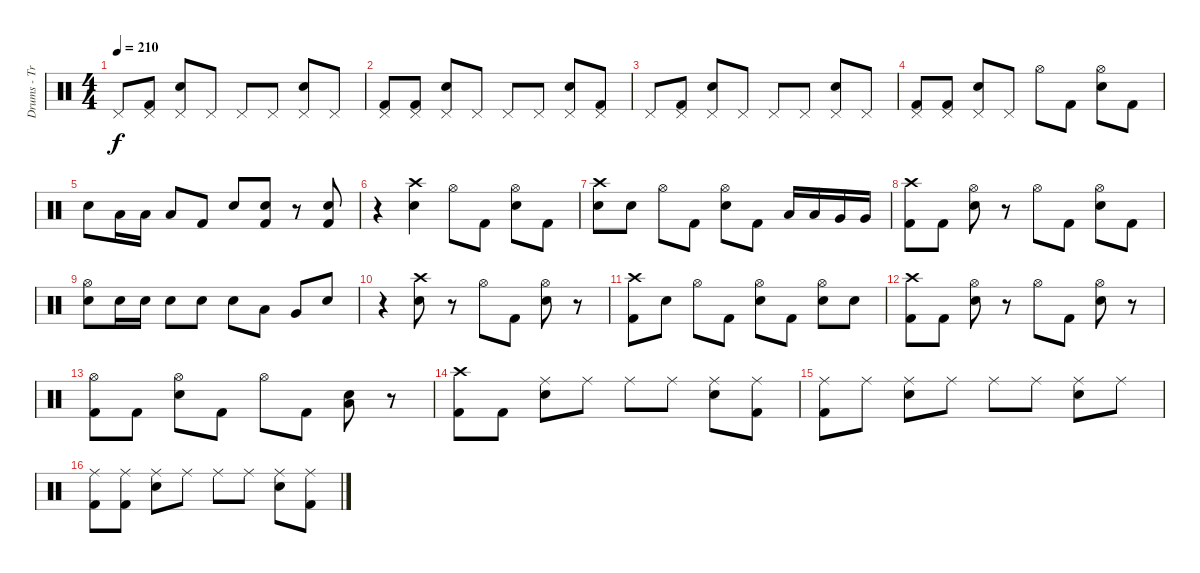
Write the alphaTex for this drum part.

\track ("Drums - Travis Barker" "Drums - Tr") {instrument percussion}
\staff {score}
\articulation defaults
\ts (4 4)
\tempo 210
\clef neutral
\ks c "Pedal Hi-Hat (hit)".8{dy f}
("Pedal Hi-Hat (hit)" "Kick (hit) 2").8 ("Pedal Hi-Hat (hit)" "Electric Snare (hit)").8 "Pedal Hi-Hat (hit)".8 "Pedal Hi-Hat (hit)".8 "Pedal Hi-Hat (hit)".8 ("Pedal Hi-Hat (hit)" "Electric Snare (hit)").8 "Pedal Hi-Hat (hit)".8 |
("Pedal Hi-Hat (hit)" "Kick (hit) 2").8 ("Pedal Hi-Hat (hit)" "Kick (hit) 2").8 ("Pedal Hi-Hat (hit)" "Electric Snare (hit)").8 "Pedal Hi-Hat (hit)".8 "Pedal Hi-Hat (hit)".8 "Pedal Hi-Hat (hit)".8 ("Pedal Hi-Hat (hit)" "Electric Snare (hit)").8 ("Pedal Hi-Hat (hit)" "Kick (hit) 2").8 |
"Pedal Hi-Hat (hit)".8 ("Pedal Hi-Hat (hit)" "Kick (hit) 2").8 ("Pedal Hi-Hat (hit)" "Electric Snare (hit)").8 "Pedal Hi-Hat (hit)".8 "Pedal Hi-Hat (hit)".8 "Pedal Hi-Hat (hit)".8 ("Pedal Hi-Hat (hit)" "Electric Snare (hit)").8 "Pedal Hi-Hat (hit)".8 |
("Pedal Hi-Hat (hit)" "Kick (hit) 2").8 ("Pedal Hi-Hat (hit)" "Kick (hit) 2").8 ("Pedal Hi-Hat (hit)" "Electric Snare (hit)").8 "Pedal Hi-Hat (hit)".8 "Hi-Hat (open)".8 "Kick (hit) 2".8 ("Hi-Hat (open)" "Electric Snare (hit)").8 "Kick (hit) 2".8 |
"Electric Snare (hit)".8 "Low Tom (hit)".16 "Low Tom (hit)".16 "Low Tom (hit)".8 "Kick (hit) 2".8 "Electric Snare (hit)".8 ("Snare (hit)"{x} "Kick (hit) 2").8 r.8 ("Snare (hit)"{x} "Kick (hit) 2").8 |
r.4 ("Crash high (hit)" "Electric Snare (hit)").4 "Hi-Hat (open)".8 "Kick (hit) 2".8 ("Hi-Hat (open)" "Electric Snare (hit)").8 "Kick (hit) 2".8 |
("Crash high (hit)" "Electric Snare (hit)").8 "Electric Snare (hit)".8 "Hi-Hat (open)".8 "Kick (hit) 2".8 ("Hi-Hat (open)" "Electric Snare (hit)").8 "Kick (hit) 2".8 "Low Tom (hit)".16 "Low Tom (hit)".16 "Very Low Tom (hit)".16 "Very Low Tom (hit)".16 |
("Crash high (hit)" "Kick (hit) 2").8 "Kick (hit) 2".8 ("Hi-Hat (open)" "Electric Snare (hit)").8 r.8 "Hi-Hat (open)".8 "Kick (hit) 2".8 ("Hi-Hat (open)" "Electric Snare (hit)").8 "Kick (hit) 2".8 |
("Hi-Hat (open)" "Electric Snare (hit)").8 "Electric Snare (hit)".16 "Electric Snare (hit)".16 "Electric Snare (hit)".8 "Electric Snare (hit)".8 "Electric Snare (hit)".8 "Low Tom (hit)".8 "Very Low Tom (hit)".8 "Electric Snare (hit)".8 |
r.4 ("Crash high (hit)" "Electric Snare (hit)").8 r.8 "Hi-Hat (open)".8 "Kick (hit) 2".8 ("Hi-Hat (open)" "Electric Snare (hit)").8 r.8 |
("Crash high (hit)" "Kick (hit) 2").8 "Electric Snare (hit)".8 "Hi-Hat (open)".8 "Kick (hit) 2".8 ("Hi-Hat (open)" "Electric Snare (hit)").8 "Kick (hit) 2".8 ("Hi-Hat (open)" "Electric Snare (hit)").8 "Electric Snare (hit)".8 |
("Crash high (hit)" "Kick (hit) 2").8 "Kick (hit) 2".8 ("Hi-Hat (open)" "Electric Snare (hit)").8 r.8 "Hi-Hat (open)".8 "Kick (hit) 2".8 ("Hi-Hat (open)" "Electric Snare (hit)").8 r.8 |
("Hi-Hat (open)" "Kick (hit) 2").8 "Kick (hit) 2".8 ("Hi-Hat (open)" "Electric Snare (hit)").8 "Kick (hit) 2".8 "Hi-Hat (open)".8 "Kick (hit) 2".8 ("Electric Snare (hit)" "Low Tom (hit)").8 r.8 |
("Crash high (hit)" "Kick (hit) 2").8 "Kick (hit) 2".8 ("Ride (middle)" "Electric Snare (hit)").8 "Ride (middle)".8 "Ride (middle)".8 "Ride (middle)".8 ("Ride (middle)" "Electric Snare (hit)").8 ("Ride (middle)" "Kick (hit) 2").8 |
("Ride (middle)" "Kick (hit) 2").8 "Ride (middle)".8 ("Ride (middle)" "Electric Snare (hit)").8 "Ride (middle)".8 "Ride (middle)".8 "Ride (middle)".8 ("Ride (middle)" "Electric Snare (hit)").8 "Ride (middle)".8 |
("Ride (middle)" "Kick (hit) 2").8 ("Ride (middle)" "Kick (hit) 2").8 ("Ride (middle)" "Electric Snare (hit)").8 "Ride (middle)".8 "Ride (middle)".8 "Ride (middle)".8 ("Ride (middle)" "Electric Snare (hit)").8 ("Ride (middle)" "Kick (hit) 2").8
